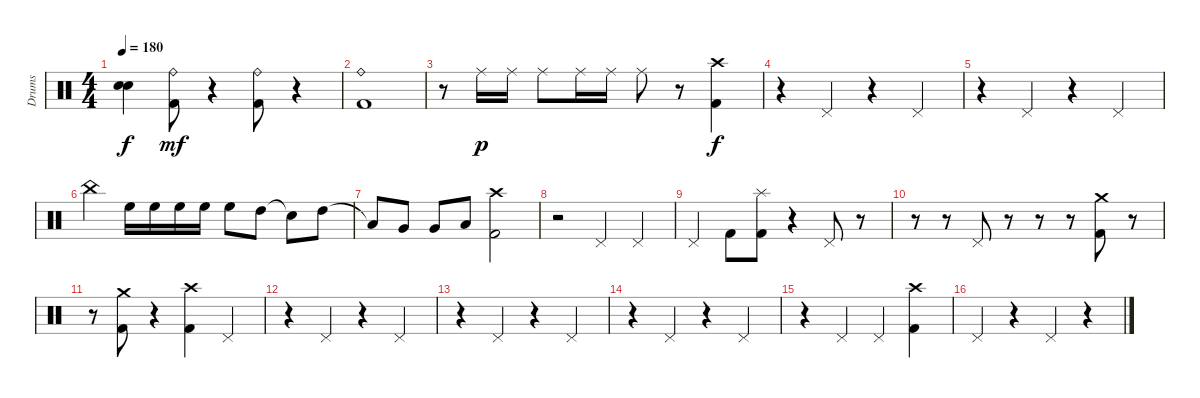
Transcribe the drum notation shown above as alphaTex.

\track ("Drums" "Drums") {instrument percussion}
\staff {score}
\articulation defaults
\ts (4 4)
\tempo 180
\clef neutral
\ks c
("Snare (hit)"{t} "Snare (hit)"{t}).4{dy f} ("Ride (bell)" "Kick (hit) 2").8{dy mf} r.4 ("Ride (bell)" "Kick (hit) 2").8 r.4 |
("Ride (bell)" "Kick (hit) 2").1 |
r.8 "Ride (middle)".16{dy p} "Ride (middle)".16 "Ride (middle)".8 "Ride (middle)".16 "Ride (middle)".16 "Ride (middle)".8 r.8 ("Crash high (hit)" "Kick (hit) 2").4{dy f} |
r.4 "Pedal Hi-Hat (hit)".4 r.4 "Pedal Hi-Hat (hit)".4 |
r.4 "Pedal Hi-Hat (hit)".4 r.4 "Pedal Hi-Hat (hit)".4 |
"China (hit)".4 "High Floor Tom (hit)".16 "High Floor Tom (hit)".16 "High Floor Tom (hit)".16 "High Floor Tom (hit)".16 "High Floor Tom (hit)".8 "High Tom (hit)".8 "Snare (hit)"{t}.8 "High Tom (hit)".8 |
"Low Tom (hit)"{t}.8 "Very Low Tom (hit)".8 "Very Low Tom (hit)".8 "Low Floor Tom (hit)".8 ("Crash high (hit)" "Kick (hit) 2").2 |
r.2 "Pedal Hi-Hat (hit)".4 "Pedal Hi-Hat (hit)".4 |
"Pedal Hi-Hat (hit)".4 "Kick (hit) 2".8 ("Splash (hit)" "Kick (hit) 2").8 r.4 "Pedal Hi-Hat (hit)".8 r.8 |
r.8 r.8 "Pedal Hi-Hat (hit)".8 r.8 r.8 r.8 ("Crash medium (hit)" "Kick (hit) 2").8 r.8 |
r.8 ("Crash medium (hit)" "Kick (hit) 2").8 r.4 ("Crash high (hit)" "Kick (hit) 2").4 "Pedal Hi-Hat (hit)".4 |
r.4 "Pedal Hi-Hat (hit)".4 r.4 "Pedal Hi-Hat (hit)".4 |
r.4 "Pedal Hi-Hat (hit)".4 r.4 "Pedal Hi-Hat (hit)".4 |
r.4 "Pedal Hi-Hat (hit)".4 r.4 "Pedal Hi-Hat (hit)".4 |
r.4 "Pedal Hi-Hat (hit)".4 "Pedal Hi-Hat (hit)".4 ("Crash high (hit)" "Kick (hit) 2").4 |
"Pedal Hi-Hat (hit)".4 r.4 "Pedal Hi-Hat (hit)".4 r.4
